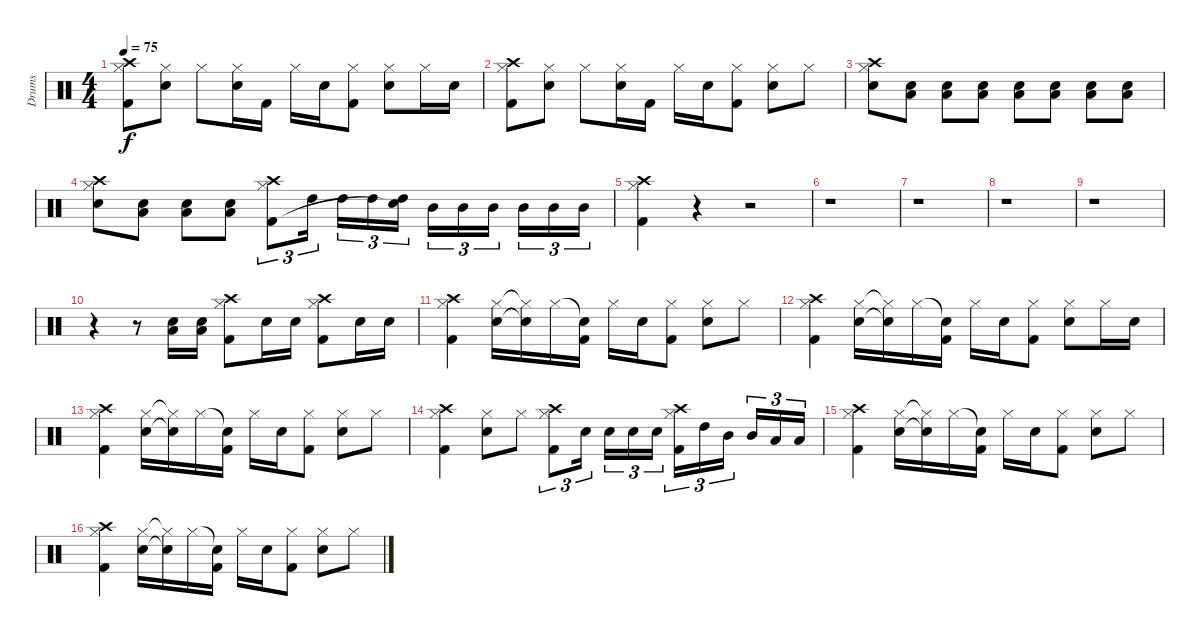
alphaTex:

\track ("Drums" "Drums") {instrument percussion}
\staff {score}
\articulation defaults
\ts (4 4)
\tempo 75
\clef neutral
\ks c
("Crash high (hit)" "Hi-Hat (closed)" "Kick (hit) 2").8{dy f} ("Hi-Hat (closed)" "Electric Snare (hit)").8 "Hi-Hat (closed)".8 ("Hi-Hat (closed)" "Electric Snare (hit)").16 "Kick (hit) 2".16 "Hi-Hat (closed)".16 "Electric Snare (hit)".16 ("Hi-Hat (closed)" "Kick (hit) 2").8 ("Hi-Hat (closed)" "Electric Snare (hit)").8 "Hi-Hat (closed)".16 "Electric Snare (hit)".16 |
("Crash high (hit)" "Hi-Hat (closed)" "Kick (hit) 2").8 ("Hi-Hat (closed)" "Electric Snare (hit)").8 "Hi-Hat (closed)".8 ("Hi-Hat (closed)" "Electric Snare (hit)").16 "Kick (hit) 2".16 "Hi-Hat (closed)".16 "Electric Snare (hit)".16 ("Hi-Hat (closed)" "Kick (hit) 2").8 ("Hi-Hat (closed)" "Electric Snare (hit)").8 "Hi-Hat (closed)".8 |
("Crash high (hit)" "Hi-Hat (closed)" "Electric Snare (hit)").8 ("Low Tom (hit)" "Electric Snare (hit)").8 ("Low Tom (hit)" "Electric Snare (hit)").8 ("Low Tom (hit)" "Electric Snare (hit)").8 ("Low Tom (hit)" "Electric Snare (hit)").8 ("Low Tom (hit)" "Electric Snare (hit)").8 ("Low Tom (hit)" "Electric Snare (hit)").8 ("Low Tom (hit)" "Electric Snare (hit)").8 |
("Hi-Hat (closed)" "Electric Snare (hit)" "Crash high (hit)").8 ("Electric Snare (hit)" "Low Tom (hit)").8 ("Electric Snare (hit)" "Low Tom (hit)").8 ("Electric Snare (hit)" "Low Tom (hit)").8 ("Crash high (hit)" "Kick (hit) 2" "Hi-Hat (closed)").8{tu (3 2)} "High Tom (hit)".16{tu (3 2)} "High Tom (hit)".16{tu (3 2)} "High Tom (hit)".16{tu (3 2)} ("High Tom (hit)" "Snare (hit)"{t}).16{tu (3 2)} "Mid Tom (hit)".16{tu (3 2)} "Mid Tom (hit)".16{tu (3 2)} "Mid Tom (hit)".16{tu (3 2)} "Mid Tom (hit)".16{tu (3 2)} "Mid Tom (hit)".16{tu (3 2)} "Mid Tom (hit)".16{tu (3 2)} |
("Hi-Hat (closed)" "Crash high (hit)" "Kick (hit) 2").4 r.4 r.2 |
r.1 |
r.1 |
r.1 |
r.1 |
r.4 r.8 ("Electric Snare (hit)" "Low Tom (hit)").16 ("Electric Snare (hit)" "Low Tom (hit)").16 ("Crash high (hit)" "Kick (hit) 2" "Hi-Hat (closed)").8 "Electric Snare (hit)".16 "Electric Snare (hit)".16 ("Crash high (hit)" "Kick (hit) 2" "Hi-Hat (closed)").8 "Electric Snare (hit)".16 "Electric Snare (hit)".16 |
("Hi-Hat (closed)" "Kick (hit) 2" "Crash high (hit)").4 ("Hi-Hat (closed)" "Electric Snare (hit)").16 ("Hi-Hat (closed)"{t} "Electric Snare (hit)"{t}).16 "Hi-Hat (closed)".16 ("Snare (hit)"{t} "Kick (hit) 2").16 "Hi-Hat (closed)".16 "Electric Snare (hit)".16 ("Hi-Hat (closed)" "Kick (hit) 2").8 ("Electric Snare (hit)" "Hi-Hat (closed)").8 "Hi-Hat (closed)".8 |
("Hi-Hat (closed)" "Kick (hit) 2" "Crash high (hit)").4 ("Hi-Hat (closed)" "Electric Snare (hit)").16 ("Hi-Hat (closed)"{t} "Electric Snare (hit)"{t}).16 "Hi-Hat (closed)".16 ("Snare (hit)"{t} "Kick (hit) 2").16 "Hi-Hat (closed)".16 "Electric Snare (hit)".16 ("Hi-Hat (closed)" "Kick (hit) 2").8 ("Electric Snare (hit)" "Hi-Hat (closed)").8 "Hi-Hat (closed)".16 "Electric Snare (hit)".16 |
("Hi-Hat (closed)" "Kick (hit) 2" "Crash high (hit)").4 ("Hi-Hat (closed)" "Electric Snare (hit)").16 ("Hi-Hat (closed)"{t} "Electric Snare (hit)"{t}).16 "Hi-Hat (closed)".16 ("Snare (hit)"{t} "Kick (hit) 2").16 "Hi-Hat (closed)".16 "Electric Snare (hit)".16 ("Hi-Hat (closed)" "Kick (hit) 2").8 ("Electric Snare (hit)" "Hi-Hat (closed)").8 "Hi-Hat (closed)".8 |
("Crash high (hit)" "Kick (hit) 2" "Hi-Hat (closed)").4 ("Hi-Hat (closed)" "Electric Snare (hit)").8 "Hi-Hat (closed)".8 ("Hi-Hat (closed)" "Crash high (hit)" "Kick (hit) 2").8{tu (3 2)} "Electric Snare (hit)".16{tu (3 2)} "Electric Snare (hit)".16{tu (3 2)} "Electric Snare (hit)".16{tu (3 2)} "Electric Snare (hit)".16{tu (3 2)} ("Crash high (hit)" "Hi-Hat (closed)" "Kick (hit) 2").16{tu (3 2)} "High Tom (hit)".16{tu (3 2)} "Mid Tom (hit)".16{tu (3 2)} "Mid Tom (hit)".16{tu (3 2)} "Low Tom (hit)".16{tu (3 2)} "Low Tom (hit)".16{tu (3 2)} |
("Hi-Hat (closed)" "Kick (hit) 2" "Crash high (hit)").4 ("Hi-Hat (closed)" "Electric Snare (hit)").16 ("Hi-Hat (closed)"{t} "Electric Snare (hit)"{t}).16 "Hi-Hat (closed)".16 ("Snare (hit)"{t} "Kick (hit) 2").16 "Hi-Hat (closed)".16 "Electric Snare (hit)".16 ("Hi-Hat (closed)" "Kick (hit) 2").8 ("Electric Snare (hit)" "Hi-Hat (closed)").8 "Hi-Hat (closed)".8 |
("Hi-Hat (closed)" "Kick (hit) 2" "Crash high (hit)").4 ("Hi-Hat (closed)" "Electric Snare (hit)").16 ("Hi-Hat (closed)"{t} "Electric Snare (hit)"{t}).16 "Hi-Hat (closed)".16 ("Snare (hit)"{t} "Kick (hit) 2").16 "Hi-Hat (closed)".16 "Electric Snare (hit)".16 ("Hi-Hat (closed)" "Kick (hit) 2").8 ("Electric Snare (hit)" "Hi-Hat (closed)").8 "Hi-Hat (closed)".8
